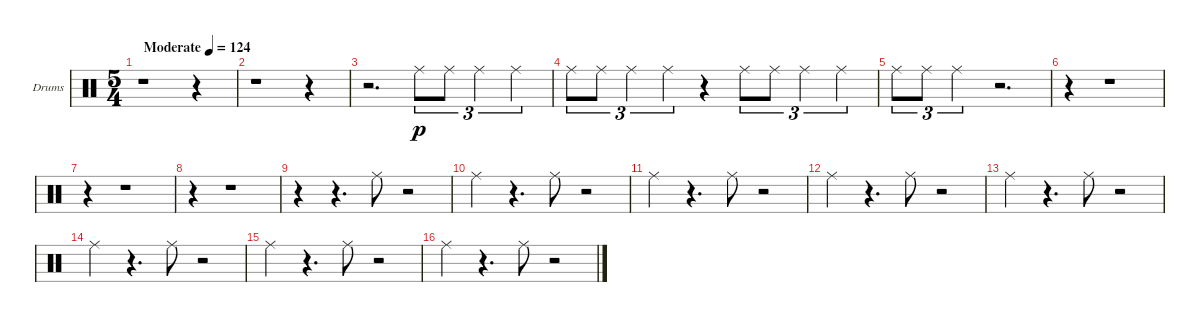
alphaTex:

\bracketExtendMode groupsimilarinstruments
\firstSystemTrackNameOrientation horizontal
\otherSystemsTrackNameOrientation horizontal
\track ("Drumkit" "Drums") {instrument percussion}
\staff {score}
\articulation defaults
\ts (5 4)
\beaming (8 6 4)
\tempo (124 "Moderate")
\clef neutral
\ks aminor
r.1{dy p} r.4 |
r.1 r.4 |
r.2{d} "Ride (middle)".8{tu (3 2)} "Ride (middle)".8{tu (3 2)} "Ride (middle)".4{tu (3 2)} "Ride (middle)".4{tu (3 2)} |
"Ride (middle)".8{tu (3 2)} "Ride (middle)".8{tu (3 2)} "Ride (middle)".4{tu (3 2)} "Ride (middle)".4{tu (3 2)} r.4 "Ride (middle)".8{tu (3 2)} "Ride (middle)".8{tu (3 2)} "Ride (middle)".4{tu (3 2)} "Ride (middle)".4{tu (3 2)} |
"Ride (middle)".8{tu (3 2)} "Ride (middle)".8{tu (3 2)} "Ride (middle)".2{tu (3 2)} r.2{d} |
r.4 r.1 |
r.4 r.1 |
r.4 r.1 |
r.4 r.4{d} "Ride (middle)".8 r.2 |
"Ride (middle)".4 r.4{d} "Ride (middle)".8 r.2 |
"Ride (middle)".4 r.4{d} "Ride (middle)".8 r.2 |
"Ride (middle)".4 r.4{d} "Ride (middle)".8 r.2 |
"Ride (middle)".4 r.4{d} "Ride (middle)".8 r.2 |
"Ride (middle)".4 r.4{d} "Ride (middle)".8 r.2 |
"Ride (middle)".4 r.4{d} "Ride (middle)".8 r.2 |
"Ride (middle)".4 r.4{d} "Ride (middle)".8 r.2
